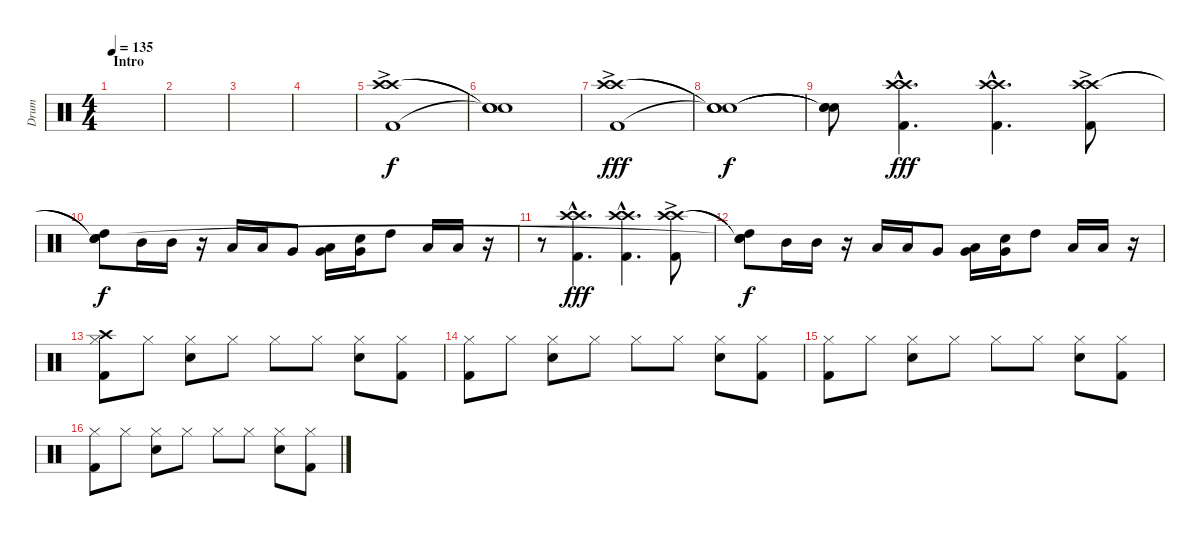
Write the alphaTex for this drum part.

\track ("Drum" "Drum") {instrument percussion}
\staff {score}
\articulation defaults
\ts (4 4)
\section ("" "Intro")
\tempo 135
\clef neutral
\ks c
|
|
|
|
("Crash high (hit)"{ac} "Crash high (hit)"{ac} "Kick (hit) 2"{ac}).1 |
("Snare (hit)"{t} "Snare (hit)"{t} "Snare (hit)"{t}).1{dy f} |
("Crash high (hit)"{ac} "Crash high (hit)"{ac} "Kick (hit) 2"{ac}).1{dy fff} |
("Snare (hit)"{t} "Snare (hit)"{t} "Snare (hit)"{t}).1{dy f} |
("Snare (hit)"{t} "Snare (hit)"{t} "Snare (hit)"{t}).8 ("Crash high (hit)"{hac} "Crash high (hit)"{hac} "Kick (hit) 2"{hac}).4{d dy fff} ("Crash high (hit)"{hac} "Crash high (hit)"{hac} "Kick (hit) 2"{hac}).4{d} ("Crash high (hit)"{ac} "Crash high (hit)"{ac} "Kick (hit) 2"{ac}).8 |
("Snare (hit)"{t} "Snare (hit)"{t} "High Tom (hit)" "Snare (hit)").8{dy f} "Mid Tom (hit)".16 "Mid Tom (hit)".16 r.16 "Low Tom (hit)".16 "Low Tom (hit)".16 "Very Low Tom (hit)".8 ("Low Floor Tom (hit)" "Very Low Tom (hit)").16 ("Electric Snare (hit)" "Very Low Tom (hit)").16 "High Tom (hit)".8 "Low Floor Tom (hit)".16 "Low Floor Tom (hit)".16 r.16 |
r.8 ("Crash high (hit)"{hac} "Crash high (hit)"{hac} "Kick (hit) 2"{hac}).4{d dy fff} ("Crash high (hit)"{hac} "Crash high (hit)"{hac} "Kick (hit) 2"{hac}).4{d} ("Crash high (hit)"{ac} "Crash high (hit)"{ac} "Kick (hit) 2"{ac}).8 |
("Snare (hit)"{t} "Snare (hit)"{t} "High Tom (hit)" "Snare (hit)"{t}).8{dy f} "Mid Tom (hit)".16 "Mid Tom (hit)".16 r.16 "Low Tom (hit)".16 "Low Tom (hit)".16 "Very Low Tom (hit)".8 ("Low Floor Tom (hit)" "Very Low Tom (hit)").16 ("Electric Snare (hit)" "Very Low Tom (hit)").16 "High Tom (hit)".8 "Low Floor Tom (hit)".16 "Low Floor Tom (hit)".16 r.16 |
("Crash high (hit)" "Hi-Hat (closed)" "Kick (hit) 2").8 "Hi-Hat (closed)".8 ("Snare (hit) 2" "Hi-Hat (closed)").8 "Hi-Hat (closed)".8 "Hi-Hat (closed)".8 "Hi-Hat (closed)".8 ("Snare (hit) 2" "Hi-Hat (closed)").8 ("Hi-Hat (closed)" "Kick (hit) 2").8 |
("Hi-Hat (closed)" "Kick (hit) 2").8 "Hi-Hat (closed)".8 ("Snare (hit) 2" "Hi-Hat (closed)").8 "Hi-Hat (closed)".8 "Hi-Hat (closed)".8 "Hi-Hat (closed)".8 ("Snare (hit) 2" "Hi-Hat (closed)").8 ("Hi-Hat (closed)" "Kick (hit) 2").8 |
("Hi-Hat (closed)" "Kick (hit) 2").8 "Hi-Hat (closed)".8 ("Snare (hit) 2" "Hi-Hat (closed)").8 "Hi-Hat (closed)".8 "Hi-Hat (closed)".8 "Hi-Hat (closed)".8 ("Snare (hit) 2" "Hi-Hat (closed)").8 ("Hi-Hat (closed)" "Kick (hit) 2").8 |
("Hi-Hat (closed)" "Kick (hit) 2").8 "Hi-Hat (closed)".8 ("Snare (hit) 2" "Hi-Hat (closed)").8 "Hi-Hat (closed)".8 "Hi-Hat (closed)".8 "Hi-Hat (closed)".8 ("Snare (hit) 2" "Hi-Hat (closed)").8 ("Hi-Hat (closed)" "Kick (hit) 2").8
